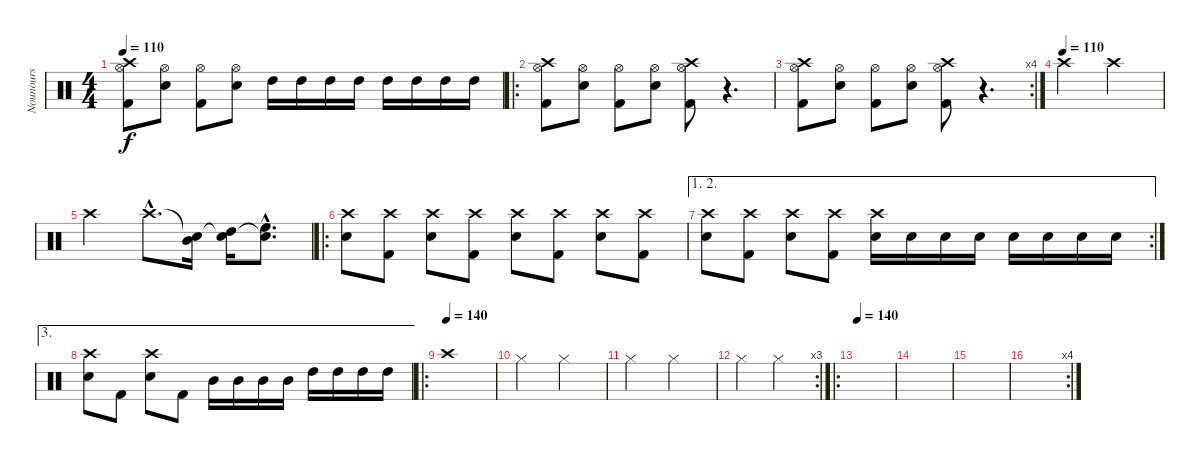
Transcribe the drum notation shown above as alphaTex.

\track ("Nounours" "Nounours") {instrument percussion}
\staff {score}
\articulation defaults
\ts (4 4)
\tempo 110
\clef neutral
\ks c
("Crash high (hit)" "Hi-Hat (open)" "Kick (hit) 2").8{dy f} ("Hi-Hat (open)" "Snare (hit) 2").8 ("Hi-Hat (open)" "Kick (hit) 2").8 ("Hi-Hat (open)" "Snare (hit) 2").8 "High Tom (hit)".16 "High Tom (hit)".16 "High Tom (hit)".16 "High Tom (hit)".16 "High Tom (hit)".16 "High Tom (hit)".16 "High Tom (hit)".16 "High Tom (hit)".16 |
\ro
("Crash high (hit)" "Hi-Hat (open)" "Kick (hit) 2").8 ("Hi-Hat (open)" "Snare (hit) 2").8 ("Hi-Hat (open)" "Kick (hit) 2").8 ("Hi-Hat (open)" "Snare (hit) 2").8 ("Crash high (hit)" "Hi-Hat (open)" "Kick (hit) 2").8 r.4{d} |
\rc 4
("Crash high (hit)" "Hi-Hat (open)" "Kick (hit) 2").8 ("Hi-Hat (open)" "Snare (hit) 2").8 ("Hi-Hat (open)" "Kick (hit) 2").8 ("Hi-Hat (open)" "Snare (hit) 2").8 ("Crash high (hit)" "Hi-Hat (open)" "Kick (hit) 2").8 r.4{d} |
\tempo (110)
"Crash high (hit)".2 "Crash high (hit)".2 |
"Crash high (hit)".2 "Crash high (hit)"{hac}.8{d} ("Snare (hit)"{t} "Mid Tom (hit)").16 ("Snare (hit)"{t} "High Tom (hit)").16 ("Snare (hit)"{hac t} "High Floor Tom (hit)"{hac}).8{d} |
\ro
("Crash high (hit)" "Snare (hit) 2").8 ("Crash high (hit)" "Kick (hit) 2").8 ("Crash high (hit)" "Snare (hit) 2").8 ("Crash high (hit)" "Kick (hit) 2").8 ("Crash high (hit)" "Snare (hit) 2").8 ("Crash high (hit)" "Kick (hit) 2").8 ("Crash high (hit)" "Snare (hit) 2").8 ("Crash high (hit)" "Kick (hit) 2").8 |
\ae (1 2)
\rc 2
("Crash high (hit)" "Snare (hit) 2").8 ("Crash high (hit)" "Kick (hit) 2").8 ("Crash high (hit)" "Snare (hit) 2").8 ("Crash high (hit)" "Kick (hit) 2").8 ("Crash high (hit)" "Snare (hit) 2").16 "Snare (hit) 2".16 "Snare (hit) 2".16 "Snare (hit) 2".16 "Snare (hit) 2".16 "Snare (hit) 2".16 "Snare (hit) 2".16 "Snare (hit) 2".16 |
\ae 3
("Crash high (hit)" "Snare (hit) 2").8 "Kick (hit) 2".8 ("Crash high (hit)" "Snare (hit) 2").8 "Kick (hit) 2".8 "Mid Tom (hit)".16 "Mid Tom (hit)".16 "Mid Tom (hit)".16 "Mid Tom (hit)".16 "High Tom (hit)".16 "High Tom (hit)".16 "High Tom (hit)".16 "High Tom (hit)".16 |
\ro
\tempo (140)
"Crash high (hit)".1 |
"Hi-Hat (closed)".2 "Hi-Hat (closed)".2 |
"Hi-Hat (closed)".2 "Hi-Hat (closed)".2 |
\rc 3 "Hi-Hat (closed)".4 "Hi-Hat (closed)".4
|
\ro
\tempo 140
|
|
|
\rc 4
